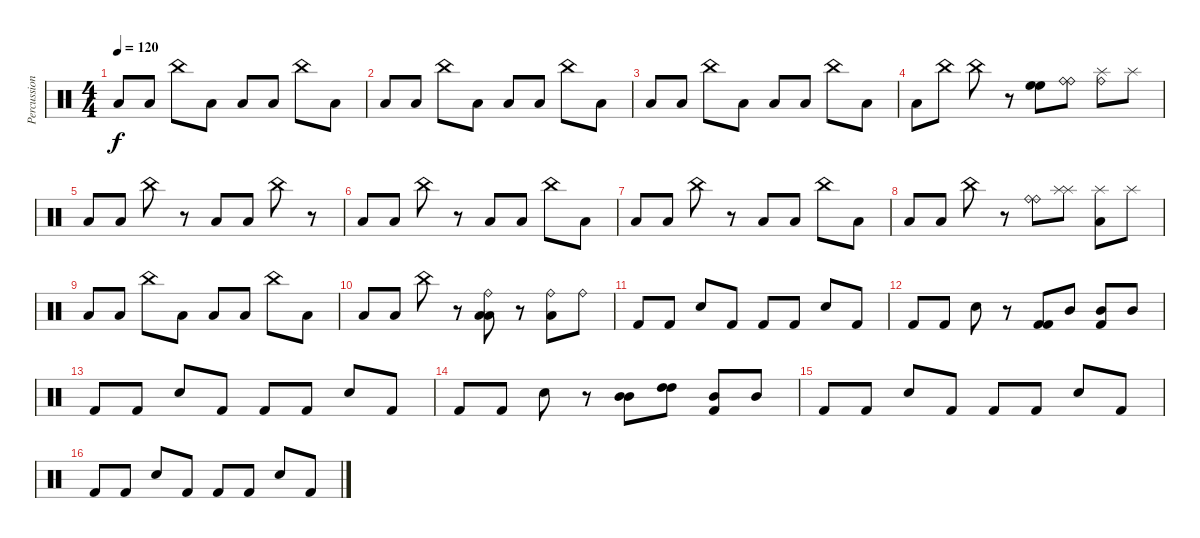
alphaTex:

\track ("Percussion" "Percussion") {instrument percussion}
\staff {score}
\articulation defaults
\ts (4 4)
\tempo 120
\clef neutral
\ks c "Low Tom (hit)".8{dy f} "Low Tom (hit)".8 "China (hit)".8 "Low Tom (hit)".8 "Low Tom (hit)".8 "Low Tom (hit)".8 "China (hit)".8 "Low Tom (hit)".8
|
"Low Tom (hit)".8 "Low Tom (hit)".8 "China (hit)".8 "Low Tom (hit)".8 "Low Tom (hit)".8 "Low Tom (hit)".8 "China (hit)".8 "Low Tom (hit)".8 |
"Low Tom (hit)".8 "Low Tom (hit)".8 "China (hit)".8 "Low Tom (hit)".8 "Low Tom (hit)".8 "Low Tom (hit)".8 "China (hit)".8 "Low Tom (hit)".8 |
"Low Tom (hit)".8 "China (hit)".8 "China (hit)".8 r.8 ("High Floor Tom (hit)" "High Floor Tom (hit)").8 ("Ride (bell)" "Ride (bell)").8 ("Ride (bell)" "Splash (hit)").8 "Splash (hit)".8 |
"Low Tom (hit)".8 "Low Tom (hit)".8 "China (hit)".8 r.8 "Low Tom (hit)".8 "Low Tom (hit)".8 "China (hit)".8 r.8 |
"Low Tom (hit)".8 "Low Tom (hit)".8 "China (hit)".8 r.8 "Low Tom (hit)".8 "Low Tom (hit)".8 "China (hit)".8 "Low Tom (hit)".8 |
"Low Tom (hit)".8 "Low Tom (hit)".8 "China (hit)".8 r.8 "Low Tom (hit)".8 "Low Tom (hit)".8 "China (hit)".8 "Low Tom (hit)".8 |
"Low Tom (hit)".8 "Low Tom (hit)".8 "China (hit)".8 r.8 ("Ride (bell)" "Ride (bell)").8 ("Splash (hit)" "Splash (hit)").8 ("Low Tom (hit)" "Splash (hit)").8 "Splash (hit)".8 |
"Low Tom (hit)".8 "Low Tom (hit)".8 "China (hit)".8 "Low Tom (hit)".8 "Low Tom (hit)".8 "Low Tom (hit)".8 "China (hit)".8 "Low Tom (hit)".8 |
"Low Tom (hit)".8 "Low Tom (hit)".8 "China (hit)".8 r.8 ("Low Tom (hit)" "Ride (bell)" "Low Tom (hit)").8 r.8 ("Low Tom (hit)" "Ride (bell)").8 "Ride (bell)".8 |
"Kick (hit) 2".8 "Kick (hit) 2".8 "Snare (hit) 2".8 "Kick (hit) 2".8 "Kick (hit) 2".8 "Kick (hit) 2".8 "Snare (hit) 2".8 "Kick (hit) 2".8 |
"Kick (hit) 2".8 "Kick (hit) 2".8 "Snare (hit) 2".8 r.8 ("Kick (hit) 2" "Kick (hit) 2").8 "Mid Tom (hit)".8 ("Kick (hit) 2" "Mid Tom (hit)").8 "Mid Tom (hit)".8 |
"Kick (hit) 2".8 "Kick (hit) 2".8 "Snare (hit) 2".8 "Kick (hit) 2".8 "Kick (hit) 2".8 "Kick (hit) 2".8 "Snare (hit) 2".8 "Kick (hit) 2".8 |
"Kick (hit) 2".8 "Kick (hit) 2".8 "Snare (hit) 2".8 r.8 ("Mid Tom (hit)" "Mid Tom (hit)").8 ("High Tom (hit)" "High Tom (hit)").8 ("Kick (hit) 2" "Mid Tom (hit)").8 "Mid Tom (hit)".8 |
"Kick (hit) 2".8 "Kick (hit) 2".8 "Snare (hit) 2".8 "Kick (hit) 2".8 "Kick (hit) 2".8 "Kick (hit) 2".8 "Snare (hit) 2".8 "Kick (hit) 2".8 |
"Kick (hit) 2".8 "Kick (hit) 2".8 "Snare (hit) 2".8 "Kick (hit) 2".8 "Kick (hit) 2".8 "Kick (hit) 2".8 "Snare (hit) 2".8 "Kick (hit) 2".8
